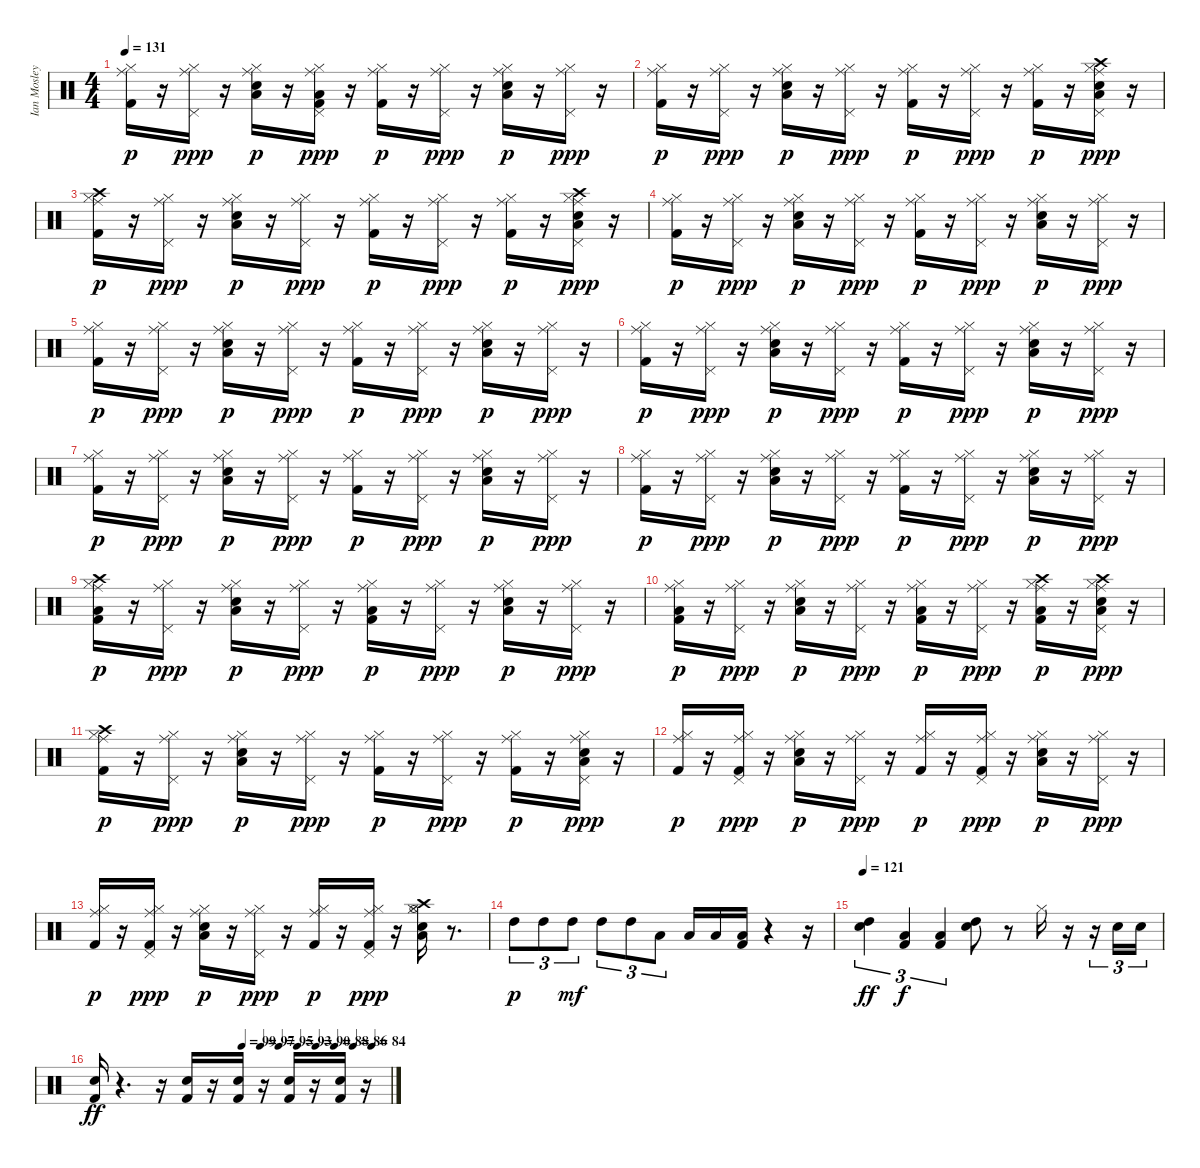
\track ("Ian Mosley" "Ian Mosley") {instrument percussion}
\staff {score}
\articulation defaults
\ts (4 4)
\tempo 131
\clef neutral
\ks c
("Kick (hit) 2" "Hi-Hat (closed)" "Ride (middle)").16{dy p} r.16 ("Hi-Hat (closed)" "Pedal Hi-Hat (hit)" "Ride (middle)").16{dy ppp} r.16 ("Snare (hit) 2" "Hi-Hat (closed)" "Low Floor Tom (hit)" "Ride (middle)").16{dy p} r.16 ("Hi-Hat (closed)" "Pedal Hi-Hat (hit)" "Low Floor Tom (hit)" "Kick (hit) 2" "Ride (middle)").16{dy ppp} r.16 ("Kick (hit) 2" "Hi-Hat (closed)" "Ride (middle)").16{dy p} r.16 ("Hi-Hat (closed)" "Pedal Hi-Hat (hit)" "Ride (middle)").16{dy ppp} r.16 ("Hi-Hat (closed)" "Snare (hit) 2" "Low Floor Tom (hit)" "Ride (middle)").16{dy p} r.16 ("Hi-Hat (closed)" "Pedal Hi-Hat (hit)" "Ride (middle)").16{dy ppp} r.16 |
("Kick (hit) 2" "Hi-Hat (closed)" "Ride (middle)").16{dy p} r.16 ("Hi-Hat (closed)" "Pedal Hi-Hat (hit)" "Ride (middle)").16{dy ppp} r.16 ("Snare (hit) 2" "Hi-Hat (closed)" "Low Floor Tom (hit)" "Ride (middle)").16{dy p} r.16 ("Hi-Hat (closed)" "Pedal Hi-Hat (hit)" "Ride (middle)").16{dy ppp} r.16 ("Kick (hit) 2" "Hi-Hat (closed)" "Ride (middle)").16{dy p} r.16 ("Hi-Hat (closed)" "Pedal Hi-Hat (hit)" "Ride (middle)").16{dy ppp} r.16 ("Hi-Hat (closed)" "Kick (hit) 2" "Ride (middle)").16{dy p} r.16 ("Hi-Hat (closed)" "Pedal Hi-Hat (hit)" "Snare (hit) 2" "Low Floor Tom (hit)" "Crash high (hit)" "Ride (middle)").16{dy ppp} r.16 |
("Kick (hit) 2" "Hi-Hat (closed)" "Crash high (hit)" "Ride (middle)").16{dy p} r.16 ("Hi-Hat (closed)" "Pedal Hi-Hat (hit)" "Ride (middle)").16{dy ppp} r.16 ("Snare (hit) 2" "Hi-Hat (closed)" "Low Floor Tom (hit)" "Ride (middle)").16{dy p} r.16 ("Hi-Hat (closed)" "Pedal Hi-Hat (hit)" "Ride (middle)").16{dy ppp} r.16 ("Kick (hit) 2" "Hi-Hat (closed)" "Ride (middle)").16{dy p} r.16 ("Hi-Hat (closed)" "Pedal Hi-Hat (hit)" "Ride (middle)").16{dy ppp} r.16 ("Hi-Hat (closed)" "Kick (hit) 2" "Ride (middle)").16{dy p} r.16 ("Hi-Hat (closed)" "Pedal Hi-Hat (hit)" "Snare (hit) 2" "Low Floor Tom (hit)" "Crash high (hit)" "Ride (middle)").16{dy ppp} r.16 |
("Kick (hit) 2" "Hi-Hat (closed)" "Ride (middle)").16{dy p} r.16 ("Hi-Hat (closed)" "Pedal Hi-Hat (hit)" "Ride (middle)").16{dy ppp} r.16 ("Snare (hit) 2" "Hi-Hat (closed)" "Low Floor Tom (hit)" "Ride (middle)").16{dy p} r.16 ("Hi-Hat (closed)" "Pedal Hi-Hat (hit)" "Ride (middle)").16{dy ppp} r.16 ("Kick (hit) 2" "Hi-Hat (closed)" "Ride (middle)").16{dy p} r.16 ("Hi-Hat (closed)" "Pedal Hi-Hat (hit)" "Ride (middle)").16{dy ppp} r.16 ("Hi-Hat (closed)" "Snare (hit) 2" "Low Floor Tom (hit)" "Ride (middle)").16{dy p} r.16 ("Hi-Hat (closed)" "Pedal Hi-Hat (hit)" "Ride (middle)").16{dy ppp} r.16 |
("Kick (hit) 2" "Hi-Hat (closed)" "Ride (middle)").16{dy p} r.16 ("Hi-Hat (closed)" "Pedal Hi-Hat (hit)" "Ride (middle)").16{dy ppp} r.16 ("Snare (hit) 2" "Hi-Hat (closed)" "Low Floor Tom (hit)" "Ride (middle)").16{dy p} r.16 ("Hi-Hat (closed)" "Pedal Hi-Hat (hit)" "Ride (middle)").16{dy ppp} r.16 ("Kick (hit) 2" "Hi-Hat (closed)" "Ride (middle)").16{dy p} r.16 ("Hi-Hat (closed)" "Pedal Hi-Hat (hit)" "Ride (middle)").16{dy ppp} r.16 ("Hi-Hat (closed)" "Snare (hit) 2" "Low Floor Tom (hit)" "Ride (middle)").16{dy p} r.16 ("Hi-Hat (closed)" "Pedal Hi-Hat (hit)" "Ride (middle)").16{dy ppp} r.16 |
("Kick (hit) 2" "Hi-Hat (closed)" "Ride (middle)").16{dy p} r.16 ("Hi-Hat (closed)" "Pedal Hi-Hat (hit)" "Ride (middle)").16{dy ppp} r.16 ("Snare (hit) 2" "Hi-Hat (closed)" "Low Floor Tom (hit)" "Ride (middle)").16{dy p} r.16 ("Hi-Hat (closed)" "Pedal Hi-Hat (hit)" "Ride (middle)").16{dy ppp} r.16 ("Kick (hit) 2" "Hi-Hat (closed)" "Ride (middle)").16{dy p} r.16 ("Hi-Hat (closed)" "Pedal Hi-Hat (hit)" "Ride (middle)").16{dy ppp} r.16 ("Hi-Hat (closed)" "Snare (hit) 2" "Low Floor Tom (hit)" "Ride (middle)").16{dy p} r.16 ("Hi-Hat (closed)" "Pedal Hi-Hat (hit)" "Ride (middle)").16{dy ppp} r.16 |
("Kick (hit) 2" "Hi-Hat (closed)" "Ride (middle)").16{dy p} r.16 ("Hi-Hat (closed)" "Pedal Hi-Hat (hit)" "Ride (middle)").16{dy ppp} r.16 ("Snare (hit) 2" "Hi-Hat (closed)" "Low Floor Tom (hit)" "Ride (middle)").16{dy p} r.16 ("Hi-Hat (closed)" "Pedal Hi-Hat (hit)" "Ride (middle)").16{dy ppp} r.16 ("Kick (hit) 2" "Hi-Hat (closed)" "Ride (middle)").16{dy p} r.16 ("Hi-Hat (closed)" "Pedal Hi-Hat (hit)" "Ride (middle)").16{dy ppp} r.16 ("Hi-Hat (closed)" "Snare (hit) 2" "Low Floor Tom (hit)" "Ride (middle)").16{dy p} r.16 ("Hi-Hat (closed)" "Pedal Hi-Hat (hit)" "Ride (middle)").16{dy ppp} r.16 |
("Kick (hit) 2" "Hi-Hat (closed)" "Ride (middle)").16{dy p} r.16 ("Hi-Hat (closed)" "Pedal Hi-Hat (hit)" "Ride (middle)").16{dy ppp} r.16 ("Snare (hit) 2" "Hi-Hat (closed)" "Low Floor Tom (hit)" "Ride (middle)").16{dy p} r.16 ("Hi-Hat (closed)" "Pedal Hi-Hat (hit)" "Ride (middle)").16{dy ppp} r.16 ("Kick (hit) 2" "Hi-Hat (closed)" "Ride (middle)").16{dy p} r.16 ("Hi-Hat (closed)" "Pedal Hi-Hat (hit)" "Ride (middle)").16{dy ppp} r.16 ("Hi-Hat (closed)" "Snare (hit) 2" "Low Floor Tom (hit)" "Ride (middle)").16{dy p} r.16 ("Hi-Hat (closed)" "Pedal Hi-Hat (hit)" "Ride (middle)").16{dy ppp} r.16 |
("Kick (hit) 2" "Hi-Hat (closed)" "Crash high (hit)" "Low Floor Tom (hit)" "Ride (middle)").16{dy p} r.16 ("Hi-Hat (closed)" "Pedal Hi-Hat (hit)" "Ride (middle)").16{dy ppp} r.16 ("Snare (hit) 2" "Hi-Hat (closed)" "Low Floor Tom (hit)" "Ride (middle)").16{dy p} r.16 ("Hi-Hat (closed)" "Pedal Hi-Hat (hit)" "Ride (middle)").16{dy ppp} r.16 ("Kick (hit) 2" "Hi-Hat (closed)" "Low Floor Tom (hit)" "Ride (middle)").16{dy p} r.16 ("Hi-Hat (closed)" "Pedal Hi-Hat (hit)" "Ride (middle)").16{dy ppp} r.16 ("Hi-Hat (closed)" "Snare (hit) 2" "Low Floor Tom (hit)" "Ride (middle)").16{dy p} r.16 ("Hi-Hat (closed)" "Pedal Hi-Hat (hit)" "Ride (middle)").16{dy ppp} r.16 |
("Kick (hit) 2" "Hi-Hat (closed)" "Low Floor Tom (hit)" "Ride (middle)").16{dy p} r.16 ("Hi-Hat (closed)" "Pedal Hi-Hat (hit)" "Ride (middle)").16{dy ppp} r.16 ("Snare (hit) 2" "Hi-Hat (closed)" "Low Floor Tom (hit)" "Ride (middle)").16{dy p} r.16 ("Hi-Hat (closed)" "Pedal Hi-Hat (hit)" "Ride (middle)").16{dy ppp} r.16 ("Kick (hit) 2" "Hi-Hat (closed)" "Low Floor Tom (hit)" "Ride (middle)").16{dy p} r.16 ("Hi-Hat (closed)" "Pedal Hi-Hat (hit)" "Ride (middle)").16{dy ppp} r.16 ("Hi-Hat (closed)" "Kick (hit) 2" "Low Floor Tom (hit)" "Crash high (hit)" "Ride (middle)").16{dy p} r.16 ("Hi-Hat (closed)" "Pedal Hi-Hat (hit)" "Snare (hit) 2" "Low Floor Tom (hit)" "Crash high (hit)" "Ride (middle)").16{dy ppp} r.16 |
("Kick (hit) 2" "Hi-Hat (closed)" "Crash high (hit)" "Ride (middle)").16{dy p} r.16 ("Hi-Hat (closed)" "Pedal Hi-Hat (hit)" "Ride (middle)").16{dy ppp} r.16 ("Snare (hit) 2" "Hi-Hat (closed)" "Low Floor Tom (hit)" "Ride (middle)").16{dy p} r.16 ("Hi-Hat (closed)" "Pedal Hi-Hat (hit)" "Ride (middle)").16{dy ppp} r.16 ("Kick (hit) 2" "Hi-Hat (closed)" "Ride (middle)").16{dy p} r.16 ("Hi-Hat (closed)" "Pedal Hi-Hat (hit)" "Ride (middle)").16{dy ppp} r.16 ("Hi-Hat (closed)" "Kick (hit) 2" "Ride (middle)").16{dy p} r.16 ("Hi-Hat (closed)" "Pedal Hi-Hat (hit)" "Snare (hit) 2" "Low Floor Tom (hit)" "Ride (middle)").16{dy ppp} r.16 |
("Kick (hit) 2" "Hi-Hat (closed)" "Ride (middle)").16{dy p} r.16 ("Hi-Hat (closed)" "Pedal Hi-Hat (hit)" "Kick (hit) 2" "Ride (middle)").16{dy ppp} r.16 ("Snare (hit) 2" "Hi-Hat (closed)" "Low Floor Tom (hit)" "Ride (middle)").16{dy p} r.16 ("Hi-Hat (closed)" "Pedal Hi-Hat (hit)" "Ride (middle)").16{dy ppp} r.16 ("Kick (hit) 2" "Hi-Hat (closed)" "Ride (middle)").16{dy p} r.16 ("Hi-Hat (closed)" "Pedal Hi-Hat (hit)" "Kick (hit) 2" "Ride (middle)").16{dy ppp} r.16 ("Hi-Hat (closed)" "Snare (hit) 2" "Low Floor Tom (hit)" "Ride (middle)").16{dy p} r.16 ("Hi-Hat (closed)" "Pedal Hi-Hat (hit)" "Ride (middle)").16{dy ppp} r.16 |
("Kick (hit) 2" "Hi-Hat (closed)" "Ride (middle)").16{dy p} r.16 ("Hi-Hat (closed)" "Pedal Hi-Hat (hit)" "Kick (hit) 2" "Ride (middle)").16{dy ppp} r.16 ("Snare (hit) 2" "Hi-Hat (closed)" "Low Floor Tom (hit)" "Ride (middle)").16{dy p} r.16 ("Hi-Hat (closed)" "Pedal Hi-Hat (hit)" "Ride (middle)").16{dy ppp} r.16 ("Kick (hit) 2" "Hi-Hat (closed)" "Ride (middle)").16{dy p} r.16 ("Hi-Hat (closed)" "Pedal Hi-Hat (hit)" "Kick (hit) 2" "Ride (middle)").16{dy ppp} r.16 ("Hi-Hat (closed)" "Snare (hit) 2" "Low Floor Tom (hit)" "Hi-Hat (open)" "Crash high (hit)").16 r.8{d} |
"High Tom (hit)".8{tu (3 2) dy p} "High Tom (hit)".8{tu (3 2)} "High Tom (hit)".8{tu (3 2) dy mf} "High Tom (hit)".8{tu (3 2)} "High Tom (hit)".8{tu (3 2)} "Low Tom (hit)".8{tu (3 2)} "Low Tom (hit)".16 "Low Floor Tom (hit)".16 ("Kick (hit) 2" "Low Floor Tom (hit)").16 r.4 r.16 |
\tempo 121
("Snare (hit) 2" "High Tom (hit)").4{tu (3 2) dy ff} ("Kick (hit) 2" "Low Tom (hit)").4{tu (3 2) dy f} ("Kick (hit) 2" "Low Floor Tom (hit)").4{tu (3 2)} ("Snare (hit) 2" "High Tom (hit)").8 r.8 "Hi-Hat (closed)".16 r.16 r.16{tu (3 2)} "Snare (hit) 2".16{tu (3 2)} "Snare (hit) 2".16{tu (3 2)} |
\tempo (99 0.5)
\tempo (97 0.5625)
\tempo (95 0.625)
\tempo (93 0.6875)
\tempo (90 0.75)
\tempo (88 0.8125)
\tempo (86 0.875)
\tempo (84 0.9375)
("Kick (hit) 2" "Snare (hit) 2").16{dy ff} r.4{d} r.16 ("Kick (hit) 2" "Snare (hit) 2").16 r.16 ("Kick (hit) 2" "Snare (hit) 2").16 r.16 ("Kick (hit) 2" "Snare (hit) 2").16 r.16 ("Kick (hit) 2" "Snare (hit) 2").16 r.16
